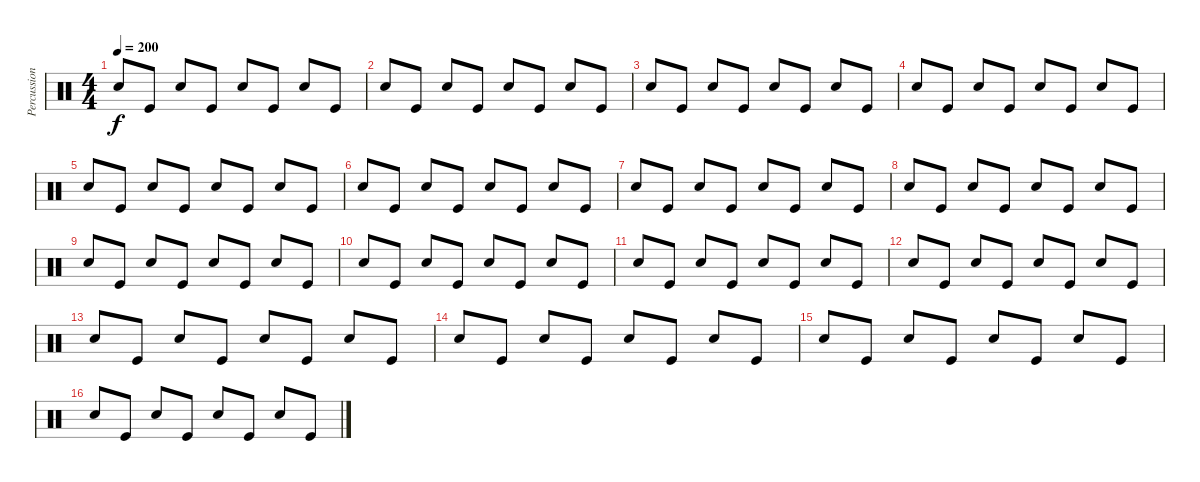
\track ("Percussion" "Percussion") {instrument percussion}
\staff {score}
\articulation defaults
\ts (4 4)
\tempo 200
\clef neutral
\ks c "Snare (hit) 2".8{dy f} "Kick (hit)".8 "Snare (hit) 2".8 "Kick (hit)".8 "Snare (hit) 2".8 "Kick (hit)".8 "Snare (hit) 2".8 "Kick (hit)".8
|
"Snare (hit) 2".8 "Kick (hit)".8 "Snare (hit) 2".8 "Kick (hit)".8 "Snare (hit) 2".8 "Kick (hit)".8 "Snare (hit) 2".8 "Kick (hit)".8 |
"Snare (hit) 2".8 "Kick (hit)".8 "Snare (hit) 2".8 "Kick (hit)".8 "Snare (hit) 2".8 "Kick (hit)".8 "Snare (hit) 2".8 "Kick (hit)".8 |
"Snare (hit) 2".8 "Kick (hit)".8 "Snare (hit) 2".8 "Kick (hit)".8 "Snare (hit) 2".8 "Kick (hit)".8 "Snare (hit) 2".8 "Kick (hit)".8 |
"Snare (hit) 2".8 "Kick (hit)".8 "Snare (hit) 2".8 "Kick (hit)".8 "Snare (hit) 2".8 "Kick (hit)".8 "Snare (hit) 2".8 "Kick (hit)".8 |
"Snare (hit) 2".8 "Kick (hit)".8 "Snare (hit) 2".8 "Kick (hit)".8 "Snare (hit) 2".8 "Kick (hit)".8 "Snare (hit) 2".8 "Kick (hit)".8 |
"Snare (hit) 2".8 "Kick (hit)".8 "Snare (hit) 2".8 "Kick (hit)".8 "Snare (hit) 2".8 "Kick (hit)".8 "Snare (hit) 2".8 "Kick (hit)".8 |
"Snare (hit) 2".8 "Kick (hit)".8 "Snare (hit) 2".8 "Kick (hit)".8 "Snare (hit) 2".8 "Kick (hit)".8 "Snare (hit) 2".8 "Kick (hit)".8 |
"Snare (hit) 2".8 "Kick (hit)".8 "Snare (hit) 2".8 "Kick (hit)".8 "Snare (hit) 2".8 "Kick (hit)".8 "Snare (hit) 2".8 "Kick (hit)".8 |
"Snare (hit) 2".8 "Kick (hit)".8 "Snare (hit) 2".8 "Kick (hit)".8 "Snare (hit) 2".8 "Kick (hit)".8 "Snare (hit) 2".8 "Kick (hit)".8 |
"Snare (hit) 2".8 "Kick (hit)".8 "Snare (hit) 2".8 "Kick (hit)".8 "Snare (hit) 2".8 "Kick (hit)".8 "Snare (hit) 2".8 "Kick (hit)".8 |
"Snare (hit) 2".8 "Kick (hit)".8 "Snare (hit) 2".8 "Kick (hit)".8 "Snare (hit) 2".8 "Kick (hit)".8 "Snare (hit) 2".8 "Kick (hit)".8 |
"Snare (hit) 2".8 "Kick (hit)".8 "Snare (hit) 2".8 "Kick (hit)".8 "Snare (hit) 2".8 "Kick (hit)".8 "Snare (hit) 2".8 "Kick (hit)".8 |
"Snare (hit) 2".8 "Kick (hit)".8 "Snare (hit) 2".8 "Kick (hit)".8 "Snare (hit) 2".8 "Kick (hit)".8 "Snare (hit) 2".8 "Kick (hit)".8 |
"Snare (hit) 2".8 "Kick (hit)".8 "Snare (hit) 2".8 "Kick (hit)".8 "Snare (hit) 2".8 "Kick (hit)".8 "Snare (hit) 2".8 "Kick (hit)".8 |
"Snare (hit) 2".8 "Kick (hit)".8 "Snare (hit) 2".8 "Kick (hit)".8 "Snare (hit) 2".8 "Kick (hit)".8 "Snare (hit) 2".8 "Kick (hit)".8
